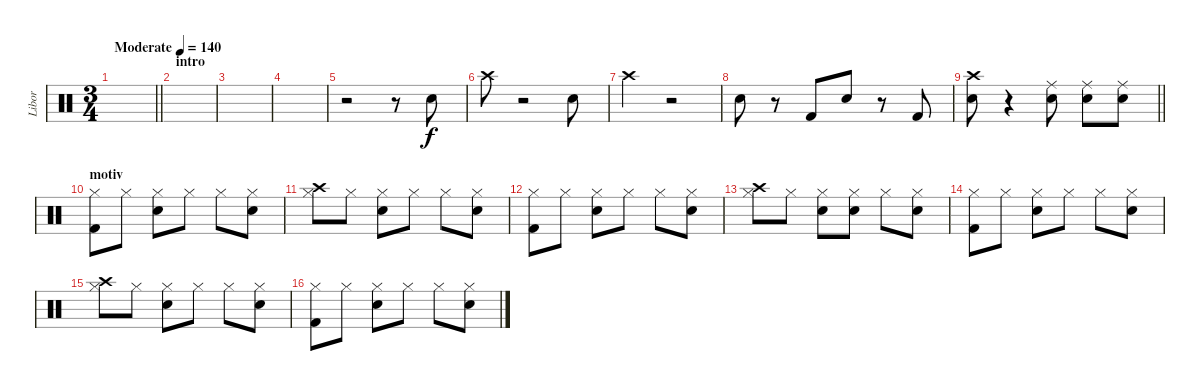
\track ("Libor" "Libor") {instrument percussion}
\staff {score}
\articulation defaults
\ts (3 4)
\tempo (140 "Moderate")
\clef neutral
\barLineRight lightlight
\ks c
|
\section ("" "intro")
|
|
|
r.2 r.8 "Snare (hit) 2".8 |
"Crash high (hit)".8 r.2 "Snare (hit) 2".8 |
"Crash high (hit)".4 r.2 |
"Snare (hit) 2".8 r.8 "Kick (hit) 2".8 "Snare (hit) 2".8 r.8 "Kick (hit) 2".8 |
\barLineRight lightlight
("Crash high (hit)" "Snare (hit) 2").8 r.4 ("Ride (middle)" "Snare (hit) 2").8 ("Ride (middle)" "Snare (hit) 2").8 ("Ride (middle)" "Snare (hit) 2").8 |
\section ("" "motiv")
("Kick (hit) 2" "Hi-Hat (closed)").8 "Hi-Hat (closed)".8 ("Snare (hit) 2" "Hi-Hat (closed)").8 "Hi-Hat (closed)".8 "Hi-Hat (closed)".8 ("Snare (hit) 2" "Hi-Hat (closed)").8 |
("Crash high (hit)" "Hi-Hat (closed)").8 "Hi-Hat (closed)".8 ("Snare (hit) 2" "Hi-Hat (closed)").8 "Hi-Hat (closed)".8 "Hi-Hat (closed)".8 ("Snare (hit) 2" "Hi-Hat (closed)").8 |
("Kick (hit) 2" "Hi-Hat (closed)").8 "Hi-Hat (closed)".8 ("Snare (hit) 2" "Hi-Hat (closed)").8 "Hi-Hat (closed)".8 "Hi-Hat (closed)".8 ("Snare (hit) 2" "Hi-Hat (closed)").8 |
("Crash high (hit)" "Hi-Hat (closed)").8 "Hi-Hat (closed)".8 ("Snare (hit) 2" "Hi-Hat (closed)").8 ("Snare (hit) 2" "Hi-Hat (closed)").8 "Hi-Hat (closed)".8 ("Snare (hit) 2" "Hi-Hat (closed)").8 |
("Kick (hit) 2" "Hi-Hat (closed)").8 "Hi-Hat (closed)".8 ("Snare (hit) 2" "Hi-Hat (closed)").8 "Hi-Hat (closed)".8 "Hi-Hat (closed)".8 ("Snare (hit) 2" "Hi-Hat (closed)").8 |
("Crash high (hit)" "Hi-Hat (closed)").8 "Hi-Hat (closed)".8 ("Snare (hit) 2" "Hi-Hat (closed)").8 "Hi-Hat (closed)".8 "Hi-Hat (closed)".8 ("Snare (hit) 2" "Hi-Hat (closed)").8 |
("Kick (hit) 2" "Hi-Hat (closed)").8 "Hi-Hat (closed)".8 ("Snare (hit) 2" "Hi-Hat (closed)").8 "Hi-Hat (closed)".8 "Hi-Hat (closed)".8 ("Snare (hit) 2" "Hi-Hat (closed)").8
